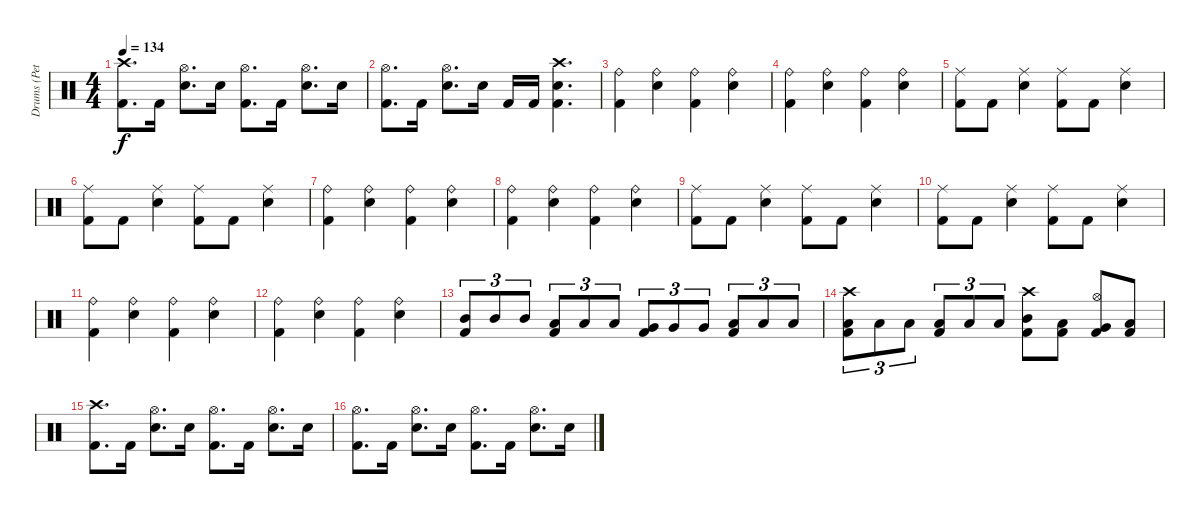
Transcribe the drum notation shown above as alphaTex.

\track ("Drums (Peter Criss)" "Drums (Pet") {instrument percussion}
\staff {score}
\articulation defaults
\ts (4 4)
\tempo 134
\clef neutral
\ks c
("Crash high (hit)" "Kick (hit) 2").8{d dy f} "Kick (hit) 2".16 ("Snare (hit) 2" "Hi-Hat (open)").8{d} "Snare (hit) 2".16 ("Hi-Hat (open)" "Kick (hit) 2").8{d} "Kick (hit) 2".16 ("Snare (hit) 2" "Hi-Hat (open)").8{d} "Snare (hit) 2".16 |
("Hi-Hat (open)" "Kick (hit) 2").8{d} "Kick (hit) 2".16 ("Snare (hit) 2" "Hi-Hat (open)").8{d} "Snare (hit) 2".16 "Kick (hit) 2".16 "Kick (hit) 2".16 ("Snare (hit) 2" "Crash high (hit)" "Kick (hit) 2").4{d} |
("Ride (bell)" "Kick (hit) 2").4 ("Ride (bell)" "Snare (hit) 2").4 ("Ride (bell)" "Kick (hit) 2").4 ("Ride (bell)" "Snare (hit) 2").4 |
("Ride (bell)" "Kick (hit) 2").4 ("Ride (bell)" "Snare (hit) 2").4 ("Ride (bell)" "Kick (hit) 2").4 ("Ride (bell)" "Snare (hit) 2").4 |
("Ride (middle)" "Kick (hit) 2").8 "Kick (hit) 2".8 ("Ride (middle)" "Snare (hit) 2").4 ("Ride (middle)" "Kick (hit) 2").8 "Kick (hit) 2".8 ("Ride (middle)" "Snare (hit) 2").4 |
("Ride (middle)" "Kick (hit) 2").8 "Kick (hit) 2".8 ("Ride (middle)" "Snare (hit) 2").4 ("Ride (middle)" "Kick (hit) 2").8 "Kick (hit) 2".8 ("Ride (middle)" "Snare (hit) 2").4 |
("Ride (bell)" "Kick (hit) 2").4 ("Ride (bell)" "Snare (hit) 2").4 ("Ride (bell)" "Kick (hit) 2").4 ("Ride (bell)" "Snare (hit) 2").4 |
("Ride (bell)" "Kick (hit) 2").4 ("Ride (bell)" "Snare (hit) 2").4 ("Ride (bell)" "Kick (hit) 2").4 ("Ride (bell)" "Snare (hit) 2").4 |
("Ride (middle)" "Kick (hit) 2").8 "Kick (hit) 2".8 ("Ride (middle)" "Snare (hit) 2").4 ("Ride (middle)" "Kick (hit) 2").8 "Kick (hit) 2".8 ("Ride (middle)" "Snare (hit) 2").4 |
("Ride (middle)" "Kick (hit) 2").8 "Kick (hit) 2".8 ("Ride (middle)" "Snare (hit) 2").4 ("Ride (middle)" "Kick (hit) 2").8 "Kick (hit) 2".8 ("Ride (middle)" "Snare (hit) 2").4 |
("Ride (bell)" "Kick (hit) 2").4 ("Ride (bell)" "Snare (hit) 2").4 ("Ride (bell)" "Kick (hit) 2").4 ("Ride (bell)" "Snare (hit) 2").4 |
("Ride (bell)" "Kick (hit) 2").4 ("Ride (bell)" "Snare (hit) 2").4 ("Ride (bell)" "Kick (hit) 2").4 ("Ride (bell)" "Snare (hit) 2").4 |
("Mid Tom (hit)" "Kick (hit) 2").8{tu (3 2)} "Mid Tom (hit)".8{tu (3 2)} "Mid Tom (hit)".8{tu (3 2)} ("Low Tom (hit)" "Kick (hit) 2").8{tu (3 2)} "Low Tom (hit)".8{tu (3 2)} "Low Tom (hit)".8{tu (3 2)} ("Very Low Tom (hit)" "Kick (hit) 2").8{tu (3 2)} "Very Low Tom (hit)".8{tu (3 2)} "Very Low Tom (hit)".8{tu (3 2)} ("Low Floor Tom (hit)" "Kick (hit) 2").8{tu (3 2)} "Low Floor Tom (hit)".8{tu (3 2)} "Low Floor Tom (hit)".8{tu (3 2)} |
("Low Floor Tom (hit)" "Crash high (hit)" "Kick (hit) 2").8{tu (3 2)} "Low Floor Tom (hit)".8{tu (3 2)} "Low Floor Tom (hit)".8{tu (3 2)} ("Low Floor Tom (hit)" "Kick (hit) 2").8{tu (3 2)} "Low Floor Tom (hit)".8{tu (3 2)} "Low Floor Tom (hit)".8{tu (3 2)} ("Mid Tom (hit)" "Crash high (hit)" "Kick (hit) 2").8 ("Low Tom (hit)" "Kick (hit) 2").8 ("Very Low Tom (hit)" "Hi-Hat (open)" "Kick (hit) 2").8 ("Low Floor Tom (hit)" "Kick (hit) 2").8 |
("Crash high (hit)" "Kick (hit) 2").8{d} "Kick (hit) 2".16 ("Snare (hit) 2" "Hi-Hat (open)").8{d} "Snare (hit) 2".16 ("Hi-Hat (open)" "Kick (hit) 2").8{d} "Kick (hit) 2".16 ("Snare (hit) 2" "Hi-Hat (open)").8{d} "Snare (hit) 2".16 |
("Hi-Hat (open)" "Kick (hit) 2").8{d} "Kick (hit) 2".16 ("Snare (hit) 2" "Hi-Hat (open)").8{d} "Snare (hit) 2".16 ("Hi-Hat (open)" "Kick (hit) 2").8{d} "Kick (hit) 2".16 ("Snare (hit) 2" "Hi-Hat (open)").8{d} "Snare (hit) 2".16
